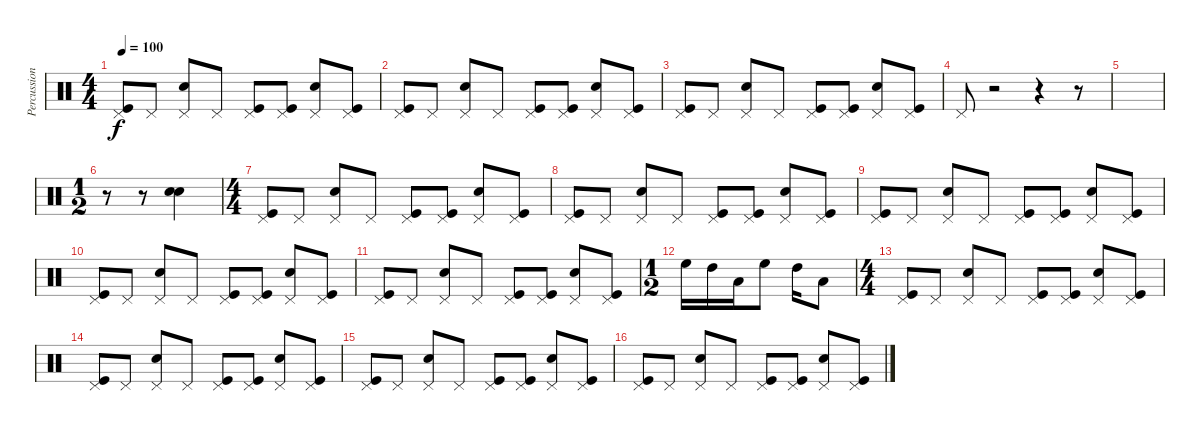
\track ("Percussion" "Percussion") {instrument percussion}
\staff {score}
\articulation defaults
\ts (4 4)
\tempo 100
\clef neutral
\ks c
("Kick (hit)" "Pedal Hi-Hat (hit)").8{dy f} "Pedal Hi-Hat (hit)".8 ("Snare (hit) 2" "Pedal Hi-Hat (hit)").8 "Pedal Hi-Hat (hit)".8 ("Kick (hit)" "Pedal Hi-Hat (hit)").8 ("Kick (hit)" "Pedal Hi-Hat (hit)").8 ("Snare (hit) 2" "Pedal Hi-Hat (hit)").8 ("Kick (hit)" "Pedal Hi-Hat (hit)").8 |
("Kick (hit)" "Pedal Hi-Hat (hit)").8 "Pedal Hi-Hat (hit)".8 ("Snare (hit) 2" "Pedal Hi-Hat (hit)").8 "Pedal Hi-Hat (hit)".8 ("Kick (hit)" "Pedal Hi-Hat (hit)").8 ("Kick (hit)" "Pedal Hi-Hat (hit)").8 ("Snare (hit) 2" "Pedal Hi-Hat (hit)").8 ("Kick (hit)" "Pedal Hi-Hat (hit)").8 |
("Kick (hit)" "Pedal Hi-Hat (hit)").8 "Pedal Hi-Hat (hit)".8 ("Snare (hit) 2" "Pedal Hi-Hat (hit)").8 "Pedal Hi-Hat (hit)".8 ("Kick (hit)" "Pedal Hi-Hat (hit)").8 ("Kick (hit)" "Pedal Hi-Hat (hit)").8 ("Snare (hit) 2" "Pedal Hi-Hat (hit)").8 ("Kick (hit)" "Pedal Hi-Hat (hit)").8 |
"Pedal Hi-Hat (hit)".8 r.2 r.4 r.8 |
|
\ts (1 2)
r.8 r.8 ("Snare (hit) 2" "Snare (hit) 2").4 |
\ts (4 4)
("Kick (hit)" "Pedal Hi-Hat (hit)").8 "Pedal Hi-Hat (hit)".8 ("Snare (hit) 2" "Pedal Hi-Hat (hit)").8 "Pedal Hi-Hat (hit)".8 ("Kick (hit)" "Pedal Hi-Hat (hit)").8 ("Kick (hit)" "Pedal Hi-Hat (hit)").8 ("Snare (hit) 2" "Pedal Hi-Hat (hit)").8 ("Kick (hit)" "Pedal Hi-Hat (hit)").8 |
("Kick (hit)" "Pedal Hi-Hat (hit)").8 "Pedal Hi-Hat (hit)".8 ("Snare (hit) 2" "Pedal Hi-Hat (hit)").8 "Pedal Hi-Hat (hit)".8 ("Kick (hit)" "Pedal Hi-Hat (hit)").8 ("Kick (hit)" "Pedal Hi-Hat (hit)").8 ("Snare (hit) 2" "Pedal Hi-Hat (hit)").8 ("Kick (hit)" "Pedal Hi-Hat (hit)").8 |
("Kick (hit)" "Pedal Hi-Hat (hit)").8 "Pedal Hi-Hat (hit)".8 ("Snare (hit) 2" "Pedal Hi-Hat (hit)").8 "Pedal Hi-Hat (hit)".8 ("Kick (hit)" "Pedal Hi-Hat (hit)").8 ("Kick (hit)" "Pedal Hi-Hat (hit)").8 ("Snare (hit) 2" "Pedal Hi-Hat (hit)").8 ("Kick (hit)" "Pedal Hi-Hat (hit)").8 |
("Kick (hit)" "Pedal Hi-Hat (hit)").8 "Pedal Hi-Hat (hit)".8 ("Snare (hit) 2" "Pedal Hi-Hat (hit)").8 "Pedal Hi-Hat (hit)".8 ("Kick (hit)" "Pedal Hi-Hat (hit)").8 ("Kick (hit)" "Pedal Hi-Hat (hit)").8 ("Snare (hit) 2" "Pedal Hi-Hat (hit)").8 ("Kick (hit)" "Pedal Hi-Hat (hit)").8 |
("Kick (hit)" "Pedal Hi-Hat (hit)").8 "Pedal Hi-Hat (hit)".8 ("Snare (hit) 2" "Pedal Hi-Hat (hit)").8 "Pedal Hi-Hat (hit)".8 ("Kick (hit)" "Pedal Hi-Hat (hit)").8 ("Kick (hit)" "Pedal Hi-Hat (hit)").8 ("Snare (hit) 2" "Pedal Hi-Hat (hit)").8 ("Kick (hit)" "Pedal Hi-Hat (hit)").8 |
\ts (1 2)
"High Floor Tom (hit)".16 "High Tom (hit)".16 "Low Tom (hit)".16 "High Floor Tom (hit)".8 "High Tom (hit)".16 "Low Tom (hit)".8 |
\ts (4 4)
("Kick (hit)" "Pedal Hi-Hat (hit)").8 "Pedal Hi-Hat (hit)".8 ("Snare (hit) 2" "Pedal Hi-Hat (hit)").8 "Pedal Hi-Hat (hit)".8 ("Kick (hit)" "Pedal Hi-Hat (hit)").8 ("Kick (hit)" "Pedal Hi-Hat (hit)").8 ("Snare (hit) 2" "Pedal Hi-Hat (hit)").8 ("Kick (hit)" "Pedal Hi-Hat (hit)").8 |
("Kick (hit)" "Pedal Hi-Hat (hit)").8 "Pedal Hi-Hat (hit)".8 ("Snare (hit) 2" "Pedal Hi-Hat (hit)").8 "Pedal Hi-Hat (hit)".8 ("Kick (hit)" "Pedal Hi-Hat (hit)").8 ("Kick (hit)" "Pedal Hi-Hat (hit)").8 ("Snare (hit) 2" "Pedal Hi-Hat (hit)").8 ("Kick (hit)" "Pedal Hi-Hat (hit)").8 |
("Kick (hit)" "Pedal Hi-Hat (hit)").8 "Pedal Hi-Hat (hit)".8 ("Snare (hit) 2" "Pedal Hi-Hat (hit)").8 "Pedal Hi-Hat (hit)".8 ("Kick (hit)" "Pedal Hi-Hat (hit)").8 ("Kick (hit)" "Pedal Hi-Hat (hit)").8 ("Snare (hit) 2" "Pedal Hi-Hat (hit)").8 ("Kick (hit)" "Pedal Hi-Hat (hit)").8 |
("Kick (hit)" "Pedal Hi-Hat (hit)").8 "Pedal Hi-Hat (hit)".8 ("Snare (hit) 2" "Pedal Hi-Hat (hit)").8 "Pedal Hi-Hat (hit)".8 ("Kick (hit)" "Pedal Hi-Hat (hit)").8 ("Kick (hit)" "Pedal Hi-Hat (hit)").8 ("Snare (hit) 2" "Pedal Hi-Hat (hit)").8 ("Kick (hit)" "Pedal Hi-Hat (hit)").8
